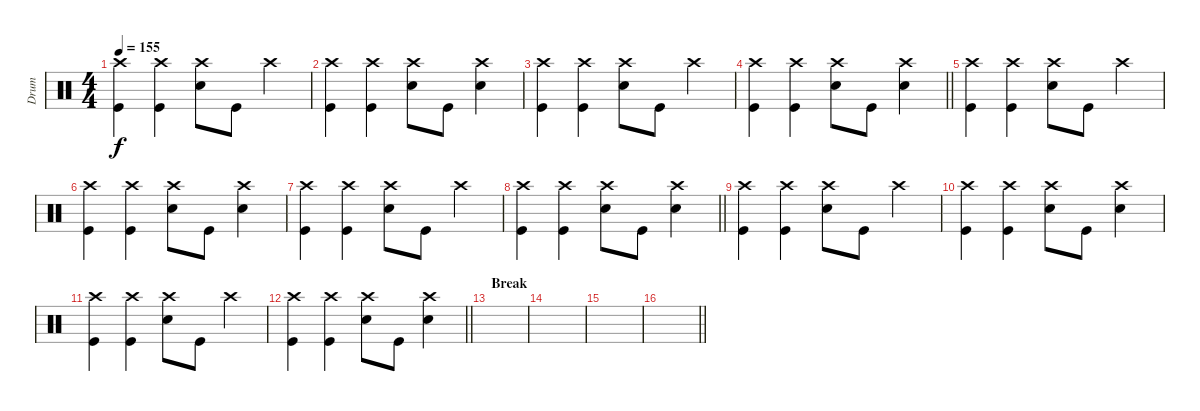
\track ("Drum" "Drum") {instrument percussion}
\staff {score}
\articulation defaults
\ts (4 4)
\tempo 155
\clef neutral
\ks c
("Crash high (hit)" "Kick (hit)").4{dy f} ("Crash high (hit)" "Kick (hit)").4 ("Crash high (hit)" "Snare (hit) 2").8 "Kick (hit)".8 "Crash high (hit)".4 |
("Crash high (hit)" "Kick (hit)").4 ("Crash high (hit)" "Kick (hit)").4 ("Crash high (hit)" "Snare (hit) 2").8 "Kick (hit)".8 ("Crash high (hit)" "Snare (hit) 2").4 |
("Crash high (hit)" "Kick (hit)").4 ("Crash high (hit)" "Kick (hit)").4 ("Crash high (hit)" "Snare (hit) 2").8 "Kick (hit)".8 "Crash high (hit)".4 |
\barLineRight lightlight
("Crash high (hit)" "Kick (hit)").4 ("Crash high (hit)" "Kick (hit)").4 ("Crash high (hit)" "Snare (hit) 2").8 "Kick (hit)".8 ("Crash high (hit)" "Snare (hit) 2").4 |
("Crash high (hit)" "Kick (hit)").4 ("Crash high (hit)" "Kick (hit)").4 ("Crash high (hit)" "Snare (hit) 2").8 "Kick (hit)".8 "Crash high (hit)".4 |
("Crash high (hit)" "Kick (hit)").4 ("Crash high (hit)" "Kick (hit)").4 ("Crash high (hit)" "Snare (hit) 2").8 "Kick (hit)".8 ("Crash high (hit)" "Snare (hit) 2").4 |
("Crash high (hit)" "Kick (hit)").4 ("Crash high (hit)" "Kick (hit)").4 ("Crash high (hit)" "Snare (hit) 2").8 "Kick (hit)".8 "Crash high (hit)".4 |
\barLineRight lightlight
("Crash high (hit)" "Kick (hit)").4 ("Crash high (hit)" "Kick (hit)").4 ("Crash high (hit)" "Snare (hit) 2").8 "Kick (hit)".8 ("Crash high (hit)" "Snare (hit) 2").4 |
("Crash high (hit)" "Kick (hit)").4 ("Crash high (hit)" "Kick (hit)").4 ("Crash high (hit)" "Snare (hit) 2").8 "Kick (hit)".8 "Crash high (hit)".4 |
("Crash high (hit)" "Kick (hit)").4 ("Crash high (hit)" "Kick (hit)").4 ("Crash high (hit)" "Snare (hit) 2").8 "Kick (hit)".8 ("Crash high (hit)" "Snare (hit) 2").4 |
("Crash high (hit)" "Kick (hit)").4 ("Crash high (hit)" "Kick (hit)").4 ("Crash high (hit)" "Snare (hit) 2").8 "Kick (hit)".8 "Crash high (hit)".4 |
\barLineRight lightlight
("Crash high (hit)" "Kick (hit)").4 ("Crash high (hit)" "Kick (hit)").4 ("Crash high (hit)" "Snare (hit) 2").8 "Kick (hit)".8 ("Crash high (hit)" "Snare (hit) 2").4 |
\section ("" "Break")
|
|
|
\barLineRight lightlight
